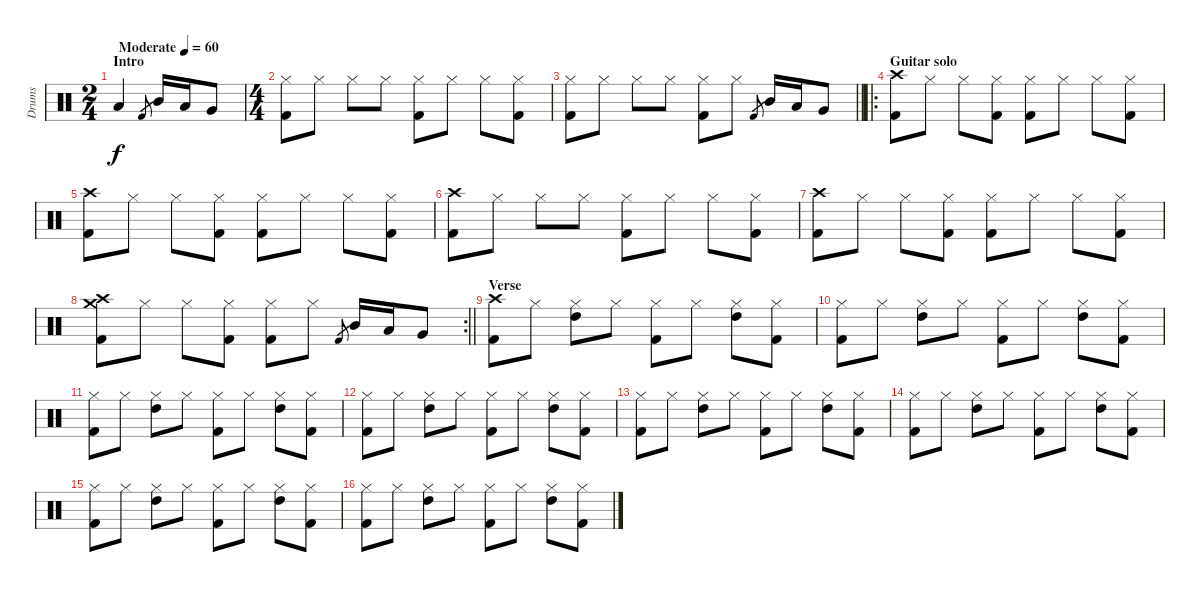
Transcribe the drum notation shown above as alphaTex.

\track ("Drums" "Drums") {instrument percussion}
\staff {score}
\articulation defaults
\ts (2 4)
\section ("" "Intro")
\tempo (60 "Moderate")
\clef neutral
\ks c "Low Floor Tom (hit)".4{dy f} "Kick (hit) 2".8{gr} "Mid Tom (hit)".16 "Low Tom (hit)".16 "Very Low Tom (hit)".8
|
\ts (4 4)
("Hi-Hat (closed)" "Kick (hit) 2").8 "Hi-Hat (closed)".8 "Hi-Hat (closed)".8 "Hi-Hat (closed)".8 ("Hi-Hat (closed)" "Kick (hit) 2").8 "Hi-Hat (closed)".8 "Hi-Hat (closed)".8 ("Hi-Hat (closed)" "Kick (hit) 2").8 |
\barLineRight lightlight
("Hi-Hat (closed)" "Kick (hit) 2").8 "Hi-Hat (closed)".8 "Hi-Hat (closed)".8 "Hi-Hat (closed)".8 ("Hi-Hat (closed)" "Kick (hit) 2").8 "Hi-Hat (closed)".8 "Kick (hit) 2".8{gr} "Mid Tom (hit)".16 "Low Tom (hit)".16 "Very Low Tom (hit)".8 |
\ro
\section ("" "Guitar solo")
("Crash high (hit)" "Kick (hit) 2").8 "Hi-Hat (closed)".8 "Hi-Hat (closed)".8 ("Hi-Hat (closed)" "Kick (hit) 2").8 ("Hi-Hat (closed)" "Kick (hit) 2").8 "Hi-Hat (closed)".8 "Hi-Hat (closed)".8 ("Hi-Hat (closed)" "Kick (hit) 2").8 |
("Crash high (hit)" "Kick (hit) 2").8 "Hi-Hat (closed)".8 "Hi-Hat (closed)".8 ("Hi-Hat (closed)" "Kick (hit) 2").8 ("Hi-Hat (closed)" "Kick (hit) 2").8 "Hi-Hat (closed)".8 "Hi-Hat (closed)".8 ("Hi-Hat (closed)" "Kick (hit) 2").8 |
("Crash high (hit)" "Kick (hit) 2").8 "Hi-Hat (closed)".8 "Hi-Hat (closed)".8 "Hi-Hat (closed)".8 ("Hi-Hat (closed)" "Kick (hit) 2").8 "Hi-Hat (closed)".8 "Hi-Hat (closed)".8 ("Hi-Hat (closed)" "Kick (hit) 2").8 |
("Crash high (hit)" "Kick (hit) 2").8 "Hi-Hat (closed)".8 "Hi-Hat (closed)".8 ("Hi-Hat (closed)" "Kick (hit) 2").8 ("Hi-Hat (closed)" "Kick (hit) 2").8 "Hi-Hat (closed)".8 "Hi-Hat (closed)".8 ("Hi-Hat (closed)" "Kick (hit) 2").8 |
\rc 2
\barLineRight lightlight
("Crash high (hit)" "Crash medium (hit)" "Kick (hit) 2").8 "Hi-Hat (closed)".8 "Hi-Hat (closed)".8 ("Hi-Hat (closed)" "Kick (hit) 2").8 ("Hi-Hat (closed)" "Kick (hit) 2").8 "Hi-Hat (closed)".8 "Kick (hit) 2".8{gr} "Mid Tom (hit)".16 "Low Tom (hit)".16 "Very Low Tom (hit)".8 |
\section ("" "Verse")
("Crash high (hit)" "Kick (hit) 2").8 "Hi-Hat (closed)".8 ("Hi-Hat (closed)" "High Tom (hit)").8 "Hi-Hat (closed)".8 ("Hi-Hat (closed)" "Kick (hit) 2").8 "Hi-Hat (closed)".8 ("Hi-Hat (closed)" "High Tom (hit)").8 ("Hi-Hat (closed)" "Kick (hit) 2").8 |
("Hi-Hat (closed)" "Kick (hit) 2").8 "Hi-Hat (closed)".8 ("Hi-Hat (closed)" "High Tom (hit)").8 "Hi-Hat (closed)".8 ("Hi-Hat (closed)" "Kick (hit) 2").8 "Hi-Hat (closed)".8 ("Hi-Hat (closed)" "High Tom (hit)").8 ("Hi-Hat (closed)" "Kick (hit) 2").8 |
("Hi-Hat (closed)" "Kick (hit) 2").8 "Hi-Hat (closed)".8 ("Hi-Hat (closed)" "High Tom (hit)").8 "Hi-Hat (closed)".8 ("Hi-Hat (closed)" "Kick (hit) 2").8 "Hi-Hat (closed)".8 ("Hi-Hat (closed)" "High Tom (hit)").8 ("Hi-Hat (closed)" "Kick (hit) 2").8 |
("Hi-Hat (closed)" "Kick (hit) 2").8 "Hi-Hat (closed)".8 ("Hi-Hat (closed)" "High Tom (hit)").8 "Hi-Hat (closed)".8 ("Hi-Hat (closed)" "Kick (hit) 2").8 "Hi-Hat (closed)".8 ("Hi-Hat (closed)" "High Tom (hit)").8 ("Hi-Hat (closed)" "Kick (hit) 2").8 |
("Hi-Hat (closed)" "Kick (hit) 2").8 "Hi-Hat (closed)".8 ("Hi-Hat (closed)" "High Tom (hit)").8 "Hi-Hat (closed)".8 ("Hi-Hat (closed)" "Kick (hit) 2").8 "Hi-Hat (closed)".8 ("Hi-Hat (closed)" "High Tom (hit)").8 ("Hi-Hat (closed)" "Kick (hit) 2").8 |
("Hi-Hat (closed)" "Kick (hit) 2").8 "Hi-Hat (closed)".8 ("Hi-Hat (closed)" "High Tom (hit)").8 "Hi-Hat (closed)".8 ("Hi-Hat (closed)" "Kick (hit) 2").8 "Hi-Hat (closed)".8 ("Hi-Hat (closed)" "High Tom (hit)").8 ("Hi-Hat (closed)" "Kick (hit) 2").8 |
("Hi-Hat (closed)" "Kick (hit) 2").8 "Hi-Hat (closed)".8 ("Hi-Hat (closed)" "High Tom (hit)").8 "Hi-Hat (closed)".8 ("Hi-Hat (closed)" "Kick (hit) 2").8 "Hi-Hat (closed)".8 ("Hi-Hat (closed)" "High Tom (hit)").8 ("Hi-Hat (closed)" "Kick (hit) 2").8 |
("Hi-Hat (closed)" "Kick (hit) 2").8 "Hi-Hat (closed)".8 ("Hi-Hat (closed)" "High Tom (hit)").8 "Hi-Hat (closed)".8 ("Hi-Hat (closed)" "Kick (hit) 2").8 "Hi-Hat (closed)".8 ("Hi-Hat (closed)" "High Tom (hit)").8 ("Hi-Hat (closed)" "Kick (hit) 2").8
